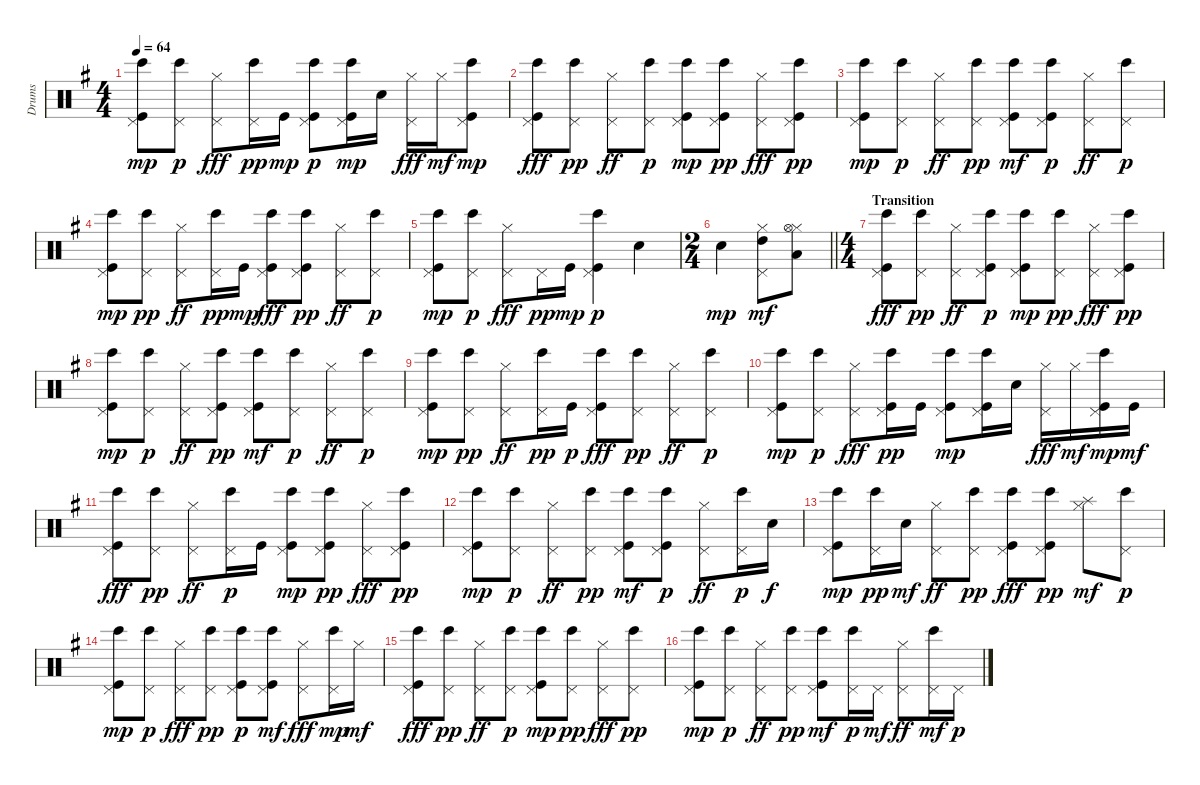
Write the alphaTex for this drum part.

\track ("Drums" "Drums") {instrument percussion}
\staff {score}
\articulation defaults
\ts (4 4)
\tempo 64
\clef neutral
\ks g
("Bongo High (hit)" "Kick (hit)" "Pedal Hi-Hat (hit)").8{dy mp} ("Bongo High (hit)" "Pedal Hi-Hat (hit)").8{dy p} ("Hi-Hat (closed)" "Pedal Hi-Hat (hit)").8{dy fff} ("Bongo High (hit)" "Pedal Hi-Hat (hit)").16{dy pp} "Kick (hit)".16{dy mp} ("Bongo High (hit)" "Kick (hit)" "Pedal Hi-Hat (hit)").8{dy p} ("Bongo High (hit)" "Kick (hit)" "Pedal Hi-Hat (hit)").16{dy mp} "Snare (hit)".16 ("Hi-Hat (closed)" "Pedal Hi-Hat (hit)").16{dy fff} "Hi-Hat (closed)".16{dy mf} ("Bongo High (hit)" "Kick (hit)" "Pedal Hi-Hat (hit)").8{dy mp} |
("Bongo High (hit)" "Kick (hit)" "Pedal Hi-Hat (hit)").8{dy fff} ("Bongo High (hit)" "Pedal Hi-Hat (hit)").8{dy pp} ("Hi-Hat (closed)" "Pedal Hi-Hat (hit)").8{dy ff} ("Bongo High (hit)" "Pedal Hi-Hat (hit)").8{dy p} ("Bongo High (hit)" "Kick (hit)" "Pedal Hi-Hat (hit)").8{dy mp} ("Bongo High (hit)" "Kick (hit)" "Pedal Hi-Hat (hit)").8{dy pp} ("Hi-Hat (closed)" "Pedal Hi-Hat (hit)").8{dy fff} ("Bongo High (hit)" "Kick (hit)" "Pedal Hi-Hat (hit)").8{dy pp} |
("Bongo High (hit)" "Kick (hit)" "Pedal Hi-Hat (hit)").8{dy mp} ("Bongo High (hit)" "Pedal Hi-Hat (hit)").8{dy p} ("Hi-Hat (closed)" "Pedal Hi-Hat (hit)").8{dy ff} ("Bongo High (hit)" "Pedal Hi-Hat (hit)").8{dy pp} ("Bongo High (hit)" "Kick (hit)" "Pedal Hi-Hat (hit)").8{dy mf} ("Bongo High (hit)" "Kick (hit)" "Pedal Hi-Hat (hit)").8{dy p} ("Hi-Hat (closed)" "Pedal Hi-Hat (hit)").8{dy ff} ("Bongo High (hit)" "Pedal Hi-Hat (hit)").8{dy p} |
("Bongo High (hit)" "Kick (hit)" "Pedal Hi-Hat (hit)").8{dy mp} ("Bongo High (hit)" "Pedal Hi-Hat (hit)").8{dy pp} ("Hi-Hat (closed)" "Pedal Hi-Hat (hit)").8{dy ff} ("Bongo High (hit)" "Pedal Hi-Hat (hit)").16{dy pp} "Kick (hit)".16{dy mp} ("Bongo High (hit)" "Kick (hit)" "Pedal Hi-Hat (hit)").8{dy fff} ("Bongo High (hit)" "Kick (hit)" "Pedal Hi-Hat (hit)").8{dy pp} ("Hi-Hat (closed)" "Pedal Hi-Hat (hit)").8{dy ff} ("Bongo High (hit)" "Pedal Hi-Hat (hit)").8{dy p} |
("Bongo High (hit)" "Kick (hit)" "Pedal Hi-Hat (hit)").8{dy mp} ("Bongo High (hit)" "Pedal Hi-Hat (hit)").8{dy p} ("Hi-Hat (closed)" "Pedal Hi-Hat (hit)").8{dy fff} "Pedal Hi-Hat (hit)".16{dy pp} "Kick (hit)".16{dy mp} ("Bongo High (hit)" "Kick (hit)" "Pedal Hi-Hat (hit)").4{dy p} "Snare (hit)".4 |
\ts (2 4)
\barLineRight lightlight "Snare (hit)".4{dy mp}
("Hi-Hat (closed)" "Pedal Hi-Hat (hit)" "High Tom (hit)").8{dy mf} ("Hi-Hat (closed)" "Low Floor Tom (hit)" "Hi-Hat (open)").8 |
\ts (4 4)
\section ("" "Transition")
("Bongo High (hit)" "Kick (hit)" "Pedal Hi-Hat (hit)").8{dy fff} ("Bongo High (hit)" "Pedal Hi-Hat (hit)").8{dy pp} ("Hi-Hat (closed)" "Pedal Hi-Hat (hit)").8{dy ff} ("Bongo High (hit)" "Kick (hit)" "Pedal Hi-Hat (hit)").8{dy p} ("Bongo High (hit)" "Kick (hit)" "Pedal Hi-Hat (hit)").8{dy mp} ("Bongo High (hit)" "Pedal Hi-Hat (hit)").8{dy pp} ("Hi-Hat (closed)" "Pedal Hi-Hat (hit)").8{dy fff} ("Bongo High (hit)" "Kick (hit)" "Pedal Hi-Hat (hit)").8{dy pp} |
("Bongo High (hit)" "Kick (hit)" "Pedal Hi-Hat (hit)").8{dy mp} ("Bongo High (hit)" "Pedal Hi-Hat (hit)").8{dy p} ("Hi-Hat (closed)" "Pedal Hi-Hat (hit)").8{dy ff} ("Bongo High (hit)" "Kick (hit)" "Pedal Hi-Hat (hit)").8{dy pp} ("Bongo High (hit)" "Kick (hit)" "Pedal Hi-Hat (hit)").8{dy mf} ("Bongo High (hit)" "Pedal Hi-Hat (hit)").8{dy p} ("Hi-Hat (closed)" "Pedal Hi-Hat (hit)").8{dy ff} ("Bongo High (hit)" "Pedal Hi-Hat (hit)").8{dy p} |
("Bongo High (hit)" "Kick (hit)" "Pedal Hi-Hat (hit)").8{dy mp} ("Bongo High (hit)" "Pedal Hi-Hat (hit)").8{dy pp} ("Hi-Hat (closed)" "Pedal Hi-Hat (hit)").8{dy ff} ("Bongo High (hit)" "Pedal Hi-Hat (hit)").16{dy pp} "Kick (hit)".16{dy p} ("Bongo High (hit)" "Kick (hit)" "Pedal Hi-Hat (hit)").8{dy fff} ("Bongo High (hit)" "Pedal Hi-Hat (hit)").8{dy pp} ("Hi-Hat (closed)" "Pedal Hi-Hat (hit)").8{dy ff} ("Bongo High (hit)" "Pedal Hi-Hat (hit)").8{dy p} |
("Bongo High (hit)" "Kick (hit)" "Pedal Hi-Hat (hit)").8{dy mp} ("Bongo High (hit)" "Pedal Hi-Hat (hit)").8{dy p} ("Hi-Hat (closed)" "Pedal Hi-Hat (hit)").8{dy fff} ("Bongo High (hit)" "Kick (hit)" "Pedal Hi-Hat (hit)").16{dy pp} "Kick (hit)".16 ("Bongo High (hit)" "Kick (hit)" "Pedal Hi-Hat (hit)").8{dy mp} ("Bongo High (hit)" "Kick (hit)" "Pedal Hi-Hat (hit)").16 "Snare (hit)".16 ("Hi-Hat (closed)" "Pedal Hi-Hat (hit)").16{dy fff} "Hi-Hat (closed)".16{dy mf} ("Bongo High (hit)" "Kick (hit)" "Pedal Hi-Hat (hit)").16{dy mp} "Kick (hit)".16{dy mf} |
("Bongo High (hit)" "Kick (hit)" "Pedal Hi-Hat (hit)").8{dy fff} ("Bongo High (hit)" "Pedal Hi-Hat (hit)").8{dy pp} ("Hi-Hat (closed)" "Pedal Hi-Hat (hit)").8{dy ff} ("Bongo High (hit)" "Pedal Hi-Hat (hit)").16{dy p} "Kick (hit)".16 ("Bongo High (hit)" "Kick (hit)" "Pedal Hi-Hat (hit)").8{dy mp} ("Bongo High (hit)" "Kick (hit)" "Pedal Hi-Hat (hit)").8{dy pp} ("Hi-Hat (closed)" "Pedal Hi-Hat (hit)").8{dy fff} ("Bongo High (hit)" "Kick (hit)" "Pedal Hi-Hat (hit)").8{dy pp} |
("Bongo High (hit)" "Kick (hit)" "Pedal Hi-Hat (hit)").8{dy mp} ("Bongo High (hit)" "Pedal Hi-Hat (hit)").8{dy p} ("Hi-Hat (closed)" "Pedal Hi-Hat (hit)").8{dy ff} ("Bongo High (hit)" "Pedal Hi-Hat (hit)").8{dy pp} ("Bongo High (hit)" "Kick (hit)" "Pedal Hi-Hat (hit)").8{dy mf} ("Bongo High (hit)" "Kick (hit)" "Pedal Hi-Hat (hit)").8{dy p} ("Hi-Hat (closed)" "Pedal Hi-Hat (hit)").8{dy ff} ("Bongo High (hit)" "Pedal Hi-Hat (hit)").16{dy p} "Snare (hit)".16{dy f} |
("Bongo High (hit)" "Kick (hit)" "Pedal Hi-Hat (hit)").8{dy mp} ("Bongo High (hit)" "Pedal Hi-Hat (hit)").16{dy pp} "Snare (hit)".16{dy mf} ("Hi-Hat (closed)" "Pedal Hi-Hat (hit)").8{dy ff} ("Bongo High (hit)" "Pedal Hi-Hat (hit)").8{dy pp} ("Bongo High (hit)" "Kick (hit)" "Pedal Hi-Hat (hit)").8{dy fff} ("Bongo High (hit)" "Kick (hit)" "Pedal Hi-Hat (hit)").8{dy pp} ("Hi-Hat (closed)" "Splash (hit)").8{dy mf} ("Bongo High (hit)" "Pedal Hi-Hat (hit)").8{dy p} |
("Bongo High (hit)" "Kick (hit)" "Pedal Hi-Hat (hit)").8{dy mp} ("Bongo High (hit)" "Pedal Hi-Hat (hit)").8{dy p} ("Hi-Hat (closed)" "Pedal Hi-Hat (hit)").8{dy fff} ("Bongo High (hit)" "Pedal Hi-Hat (hit)").8{dy pp} ("Bongo High (hit)" "Kick (hit)" "Pedal Hi-Hat (hit)").8{dy p} ("Bongo High (hit)" "Kick (hit)" "Pedal Hi-Hat (hit)").8{dy mf} ("Hi-Hat (closed)" "Pedal Hi-Hat (hit)").8{dy fff} ("Bongo High (hit)" "Pedal Hi-Hat (hit)").16{dy mp} "Hi-Hat (closed)".16{dy mf} |
("Bongo High (hit)" "Kick (hit)" "Pedal Hi-Hat (hit)").8{dy fff} ("Bongo High (hit)" "Pedal Hi-Hat (hit)").8{dy pp} ("Hi-Hat (closed)" "Pedal Hi-Hat (hit)").8{dy ff} ("Bongo High (hit)" "Pedal Hi-Hat (hit)").8{dy p} ("Bongo High (hit)" "Kick (hit)" "Pedal Hi-Hat (hit)").8{dy mp} ("Bongo High (hit)" "Pedal Hi-Hat (hit)").8{dy pp} ("Hi-Hat (closed)" "Pedal Hi-Hat (hit)").8{dy fff} ("Bongo High (hit)" "Pedal Hi-Hat (hit)").8{dy pp} |
("Bongo High (hit)" "Kick (hit)" "Pedal Hi-Hat (hit)").8{dy mp} ("Bongo High (hit)" "Pedal Hi-Hat (hit)").8{dy p} ("Hi-Hat (closed)" "Pedal Hi-Hat (hit)").8{dy ff} ("Bongo High (hit)" "Pedal Hi-Hat (hit)").8{dy pp} ("Bongo High (hit)" "Kick (hit)" "Pedal Hi-Hat (hit)").8{dy mf} ("Bongo High (hit)" "Pedal Hi-Hat (hit)").16{dy p} "Pedal Hi-Hat (hit)".16{dy mf} ("Hi-Hat (closed)" "Pedal Hi-Hat (hit)").8{dy ff} ("Bongo High (hit)" "Pedal Hi-Hat (hit)").16{dy mf} "Pedal Hi-Hat (hit)".16{dy p}
